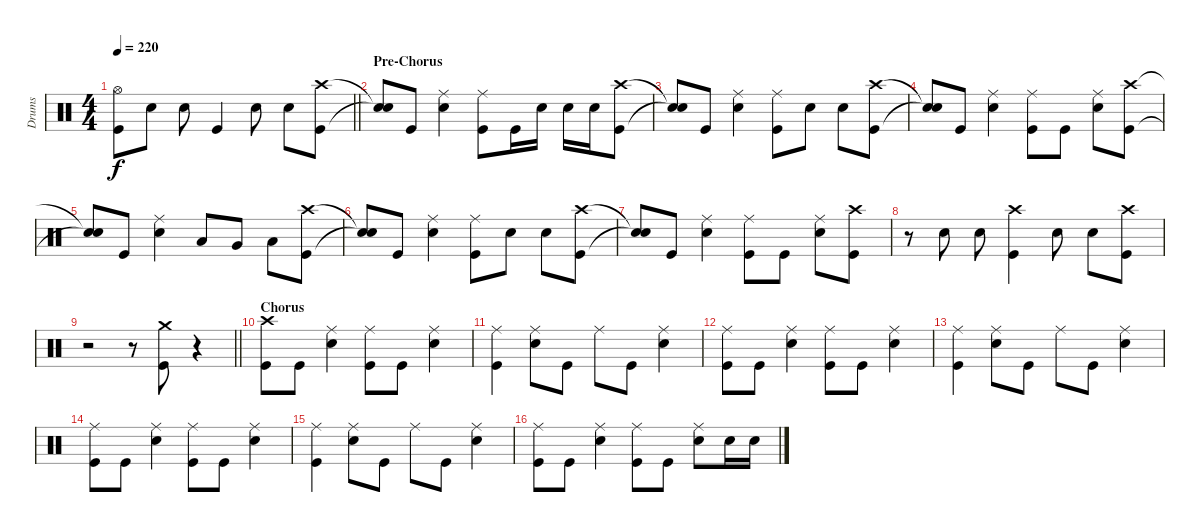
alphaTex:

\track ("Drums" "Drums") {instrument percussion}
\staff {score}
\articulation defaults
\ts (4 4)
\tempo 220
\clef neutral
\barLineRight lightlight
\ks c
("Hi-Hat (open)" "Kick (hit)").8{dy f} "Snare (hit) 2".8 "Snare (hit) 2".8 "Kick (hit)".4 "Snare (hit) 2".8 "Snare (hit) 2".8 ("Crash high (hit)" "Kick (hit)").8 |
\section ("" "Pre-Chorus")
("Snare (hit)"{t} "Snare (hit)"{t}).8 "Kick (hit)".8 ("Ride (middle)" "Snare (hit) 2").4 ("Ride (middle)" "Kick (hit)").8 "Kick (hit)".16 "Snare (hit) 2".16 "Snare (hit) 2".16 "Snare (hit) 2".16 ("Crash high (hit)" "Kick (hit)").8 |
("Snare (hit)"{t} "Snare (hit)"{t}).8 "Kick (hit)".8 ("Ride (middle)" "Snare (hit) 2").4 ("Ride (middle)" "Kick (hit)").8 "Snare (hit) 2".8 "Snare (hit) 2".8 ("Crash high (hit)" "Kick (hit)").8 |
("Snare (hit)"{t} "Snare (hit)"{t}).8 "Kick (hit)".8 ("Ride (middle)" "Snare (hit) 2").4 ("Ride (middle)" "Kick (hit)").8 "Kick (hit)".8 ("Ride (middle)" "Snare (hit) 2").8 ("Crash high (hit)" "Kick (hit)").8 |
("Snare (hit)"{t} "Snare (hit)"{t}).8 "Kick (hit)".8 ("Ride (middle)" "Snare (hit) 2").4 "Low Tom (hit)".8 "Very Low Tom (hit)".8 "Low Floor Tom (hit)".8 ("Crash high (hit)" "Kick (hit)").8 |
("Snare (hit)"{t} "Snare (hit)"{t}).8 "Kick (hit)".8 ("Ride (middle)" "Snare (hit) 2").4 ("Ride (middle)" "Kick (hit)").8 "Snare (hit) 2".8 "Snare (hit) 2".8 ("Crash high (hit)" "Kick (hit)").8 |
("Snare (hit)"{t} "Snare (hit)"{t}).8 "Kick (hit)".8 ("Ride (middle)" "Snare (hit) 2").4 ("Ride (middle)" "Kick (hit)").8 "Kick (hit)".8 ("Ride (middle)" "Snare (hit) 2").8 ("Crash high (hit)" "Kick (hit)").8 |
r.8 "Snare (hit) 2".8 "Snare (hit) 2".8 ("Crash high (hit)" "Kick (hit)").4 "Snare (hit) 2".8 "Snare (hit) 2".8 ("Crash high (hit)" "Kick (hit)").8 |
\barLineRight lightlight
r.2 r.8 ("Crash medium (hit)" "Kick (hit)").8 r.4 |
\section ("" "Chorus")
("Crash high (hit)" "Kick (hit)").8 "Kick (hit)".8 ("Ride (middle)" "Snare (hit) 2").4 ("Ride (middle)" "Kick (hit)").8 "Kick (hit)".8 ("Ride (middle)" "Snare (hit) 2").4 |
("Ride (middle)" "Kick (hit)").4 ("Ride (middle)" "Snare (hit) 2").8 "Kick (hit)".8 "Ride (middle)".8 "Kick (hit)".8 ("Ride (middle)" "Snare (hit) 2").4 |
("Ride (middle)" "Kick (hit)").8 "Kick (hit)".8 ("Ride (middle)" "Snare (hit) 2").4 ("Ride (middle)" "Kick (hit)").8 "Kick (hit)".8 ("Ride (middle)" "Snare (hit) 2").4 |
("Ride (middle)" "Kick (hit)").4 ("Ride (middle)" "Snare (hit) 2").8 "Kick (hit)".8 "Ride (middle)".8 "Kick (hit)".8 ("Ride (middle)" "Snare (hit) 2").4 |
("Ride (middle)" "Kick (hit)").8 "Kick (hit)".8 ("Ride (middle)" "Snare (hit) 2").4 ("Ride (middle)" "Kick (hit)").8 "Kick (hit)".8 ("Ride (middle)" "Snare (hit) 2").4 |
("Ride (middle)" "Kick (hit)").4 ("Ride (middle)" "Snare (hit) 2").8 "Kick (hit)".8 "Ride (middle)".8 "Kick (hit)".8 ("Ride (middle)" "Snare (hit) 2").4 |
("Ride (middle)" "Kick (hit)").8 "Kick (hit)".8 ("Ride (middle)" "Snare (hit) 2").4 ("Ride (middle)" "Kick (hit)").8 "Kick (hit)".8 ("Ride (middle)" "Snare (hit) 2").8 "Snare (hit) 2".16 "Snare (hit) 2".16
